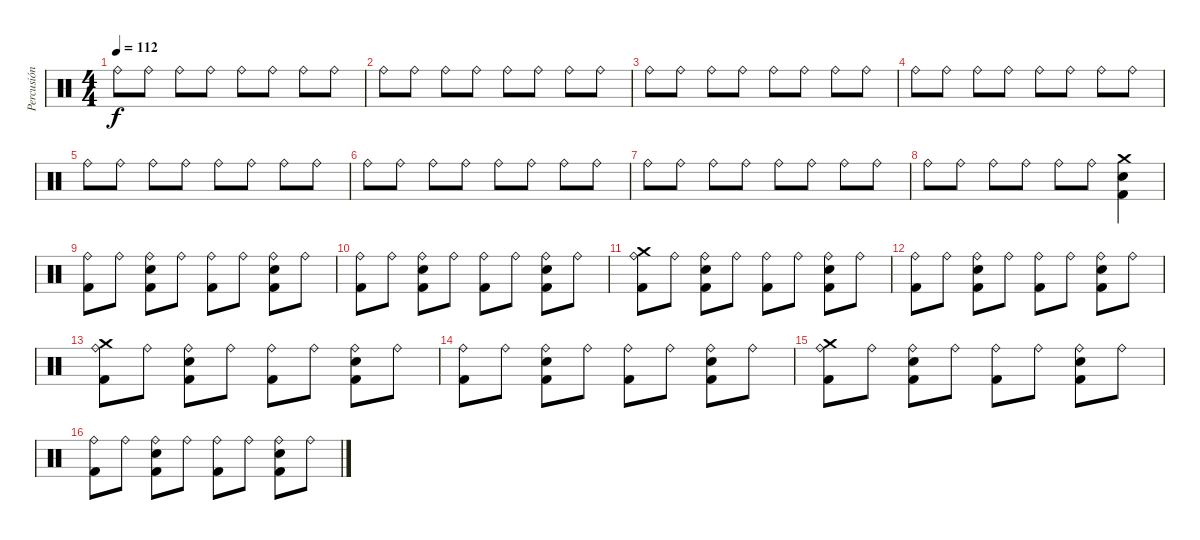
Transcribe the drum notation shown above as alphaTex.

\track ("Percusión" "Percusión") {instrument percussion}
\staff {score}
\articulation defaults
\ts (4 4)
\tempo 112
\clef neutral
\ks c "Ride (bell)".8{dy f} "Ride (bell)".8 "Ride (bell)".8 "Ride (bell)".8 "Ride (bell)".8 "Ride (bell)".8 "Ride (bell)".8 "Ride (bell)".8
|
"Ride (bell)".8 "Ride (bell)".8 "Ride (bell)".8 "Ride (bell)".8 "Ride (bell)".8 "Ride (bell)".8 "Ride (bell)".8 "Ride (bell)".8 |
"Ride (bell)".8 "Ride (bell)".8 "Ride (bell)".8 "Ride (bell)".8 "Ride (bell)".8 "Ride (bell)".8 "Ride (bell)".8 "Ride (bell)".8 |
"Ride (bell)".8 "Ride (bell)".8 "Ride (bell)".8 "Ride (bell)".8 "Ride (bell)".8 "Ride (bell)".8 "Ride (bell)".8 "Ride (bell)".8 |
"Ride (bell)".8 "Ride (bell)".8 "Ride (bell)".8 "Ride (bell)".8 "Ride (bell)".8 "Ride (bell)".8 "Ride (bell)".8 "Ride (bell)".8 |
"Ride (bell)".8 "Ride (bell)".8 "Ride (bell)".8 "Ride (bell)".8 "Ride (bell)".8 "Ride (bell)".8 "Ride (bell)".8 "Ride (bell)".8 |
"Ride (bell)".8 "Ride (bell)".8 "Ride (bell)".8 "Ride (bell)".8 "Ride (bell)".8 "Ride (bell)".8 "Ride (bell)".8 "Ride (bell)".8 |
"Ride (bell)".8 "Ride (bell)".8 "Ride (bell)".8 "Ride (bell)".8 "Ride (bell)".8 "Ride (bell)".8 ("Electric Snare (hit)" "Kick (hit) 2" "Crash medium (hit)").4 |
("Kick (hit) 2" "Ride (bell)").8 "Ride (bell)".8 ("Kick (hit) 2" "Ride (bell)" "Electric Snare (hit)").8 "Ride (bell)".8 ("Kick (hit) 2" "Ride (bell)").8 "Ride (bell)".8 ("Kick (hit) 2" "Ride (bell)" "Electric Snare (hit)").8 "Ride (bell)".8 |
("Kick (hit) 2" "Ride (bell)").8 "Ride (bell)".8 ("Kick (hit) 2" "Ride (bell)" "Electric Snare (hit)").8 "Ride (bell)".8 ("Kick (hit) 2" "Ride (bell)").8 "Ride (bell)".8 ("Kick (hit) 2" "Ride (bell)" "Electric Snare (hit)").8 "Ride (bell)".8 |
("Kick (hit) 2" "Ride (bell)" "Crash medium (hit)").8 "Ride (bell)".8 ("Kick (hit) 2" "Ride (bell)" "Electric Snare (hit)").8 "Ride (bell)".8 ("Kick (hit) 2" "Ride (bell)").8 "Ride (bell)".8 ("Kick (hit) 2" "Ride (bell)" "Electric Snare (hit)").8 "Ride (bell)".8 |
("Kick (hit) 2" "Ride (bell)").8 "Ride (bell)".8 ("Kick (hit) 2" "Ride (bell)" "Electric Snare (hit)").8 "Ride (bell)".8 ("Kick (hit) 2" "Ride (bell)").8 "Ride (bell)".8 ("Kick (hit) 2" "Ride (bell)" "Electric Snare (hit)").8 "Ride (bell)".8 |
("Kick (hit) 2" "Ride (bell)" "Crash medium (hit)").8 "Ride (bell)".8 ("Kick (hit) 2" "Ride (bell)" "Electric Snare (hit)").8 "Ride (bell)".8 ("Kick (hit) 2" "Ride (bell)").8 "Ride (bell)".8 ("Kick (hit) 2" "Ride (bell)" "Electric Snare (hit)").8 "Ride (bell)".8 |
("Kick (hit) 2" "Ride (bell)").8 "Ride (bell)".8 ("Kick (hit) 2" "Ride (bell)" "Electric Snare (hit)").8 "Ride (bell)".8 ("Kick (hit) 2" "Ride (bell)").8 "Ride (bell)".8 ("Kick (hit) 2" "Ride (bell)" "Electric Snare (hit)").8 "Ride (bell)".8 |
("Kick (hit) 2" "Ride (bell)" "Crash medium (hit)").8 "Ride (bell)".8 ("Kick (hit) 2" "Ride (bell)" "Electric Snare (hit)").8 "Ride (bell)".8 ("Kick (hit) 2" "Ride (bell)").8 "Ride (bell)".8 ("Kick (hit) 2" "Ride (bell)" "Electric Snare (hit)").8 "Ride (bell)".8 |
("Kick (hit) 2" "Ride (bell)").8 "Ride (bell)".8 ("Kick (hit) 2" "Ride (bell)" "Electric Snare (hit)").8 "Ride (bell)".8 ("Kick (hit) 2" "Ride (bell)").8 "Ride (bell)".8 ("Kick (hit) 2" "Ride (bell)" "Electric Snare (hit)").8 "Ride (bell)".8
